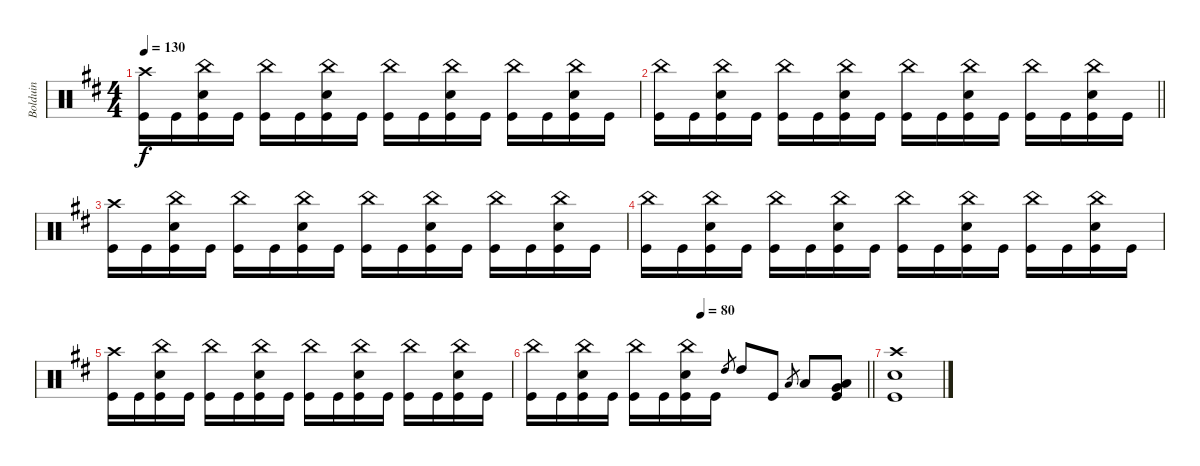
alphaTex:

\track ("Bolduin" "Bolduin") {instrument percussion}
\staff {score}
\articulation defaults
\ts (4 4)
\tempo 130
\clef neutral
\ks bminor
("Kick (hit)" "Crash high (hit)").16{dy f} "Kick (hit)".16 ("Kick (hit)" "China (hit)" "Snare (hit) 2").16 "Kick (hit)".16 ("Kick (hit)" "China (hit)").16 "Kick (hit)".16 ("Kick (hit)" "China (hit)" "Snare (hit) 2").16 "Kick (hit)".16 ("Kick (hit)" "China (hit)").16 "Kick (hit)".16 ("Kick (hit)" "China (hit)" "Snare (hit) 2").16 "Kick (hit)".16 ("Kick (hit)" "China (hit)").16 "Kick (hit)".16 ("Kick (hit)" "China (hit)" "Snare (hit) 2").16 "Kick (hit)".16 |
\barLineRight lightlight
("Kick (hit)" "China (hit)").16 "Kick (hit)".16 ("Kick (hit)" "China (hit)" "Snare (hit) 2").16 "Kick (hit)".16 ("Kick (hit)" "China (hit)").16 "Kick (hit)".16 ("Kick (hit)" "China (hit)" "Snare (hit) 2").16 "Kick (hit)".16 ("Kick (hit)" "China (hit)").16 "Kick (hit)".16 ("Kick (hit)" "China (hit)" "Snare (hit) 2").16 "Kick (hit)".16 ("Kick (hit)" "China (hit)").16 "Kick (hit)".16 ("Kick (hit)" "China (hit)" "Snare (hit) 2").16 "Kick (hit)".16 |
("Kick (hit)" "Crash high (hit)").16 "Kick (hit)".16 ("Kick (hit)" "China (hit)" "Snare (hit) 2").16 "Kick (hit)".16 ("Kick (hit)" "China (hit)").16 "Kick (hit)".16 ("Kick (hit)" "China (hit)" "Snare (hit) 2").16 "Kick (hit)".16 ("Kick (hit)" "China (hit)").16 "Kick (hit)".16 ("Kick (hit)" "China (hit)" "Snare (hit) 2").16 "Kick (hit)".16 ("Kick (hit)" "China (hit)").16 "Kick (hit)".16 ("Kick (hit)" "China (hit)" "Snare (hit) 2").16 "Kick (hit)".16 |
("Kick (hit)" "China (hit)").16 "Kick (hit)".16 ("Kick (hit)" "China (hit)" "Snare (hit) 2").16 "Kick (hit)".16 ("Kick (hit)" "China (hit)").16 "Kick (hit)".16 ("Kick (hit)" "China (hit)" "Snare (hit) 2").16 "Kick (hit)".16 ("Kick (hit)" "China (hit)").16 "Kick (hit)".16 ("Kick (hit)" "China (hit)" "Snare (hit) 2").16 "Kick (hit)".16 ("Kick (hit)" "China (hit)").16 "Kick (hit)".16 ("Kick (hit)" "China (hit)" "Snare (hit) 2").16 "Kick (hit)".16 |
("Kick (hit)" "Crash high (hit)").16 "Kick (hit)".16 ("Kick (hit)" "China (hit)" "Snare (hit) 2").16 "Kick (hit)".16 ("Kick (hit)" "China (hit)").16 "Kick (hit)".16 ("Kick (hit)" "China (hit)" "Snare (hit) 2").16 "Kick (hit)".16 ("Kick (hit)" "China (hit)").16 "Kick (hit)".16 ("Kick (hit)" "China (hit)" "Snare (hit) 2").16 "Kick (hit)".16 ("Kick (hit)" "China (hit)").16 "Kick (hit)".16 ("Kick (hit)" "China (hit)" "Snare (hit) 2").16 "Kick (hit)".16 |
\tempo (80 0.5)
\barLineRight lightlight
("Kick (hit)" "China (hit)").16 "Kick (hit)".16 ("Kick (hit)" "China (hit)" "Snare (hit) 2").16 "Kick (hit)".16 ("Kick (hit)" "China (hit)").16 "Kick (hit)".16 ("Kick (hit)" "China (hit)" "Snare (hit) 2").16 "Kick (hit)".16 "High Tom (hit)".8{gr} "High Tom (hit)".8 "Kick (hit)".8 "Low Tom (hit)".8{gr} "Low Tom (hit)".8 ("Kick (hit)" "Very Low Tom (hit)" "Low Tom (hit)").8 |
("Snare (hit) 2" "Kick (hit)" "Crash high (hit)").1
